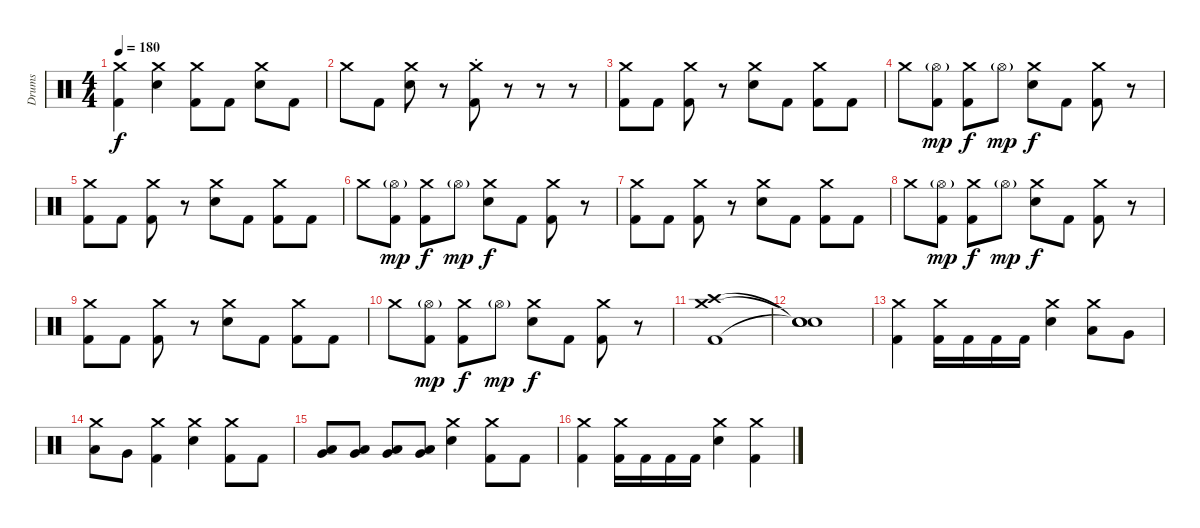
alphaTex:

\track ("Drums" "Drums") {instrument percussion}
\staff {score}
\articulation defaults
\ts (4 4)
\tempo 180
\clef neutral
\ks c
("Crash medium (hit)" "Kick (hit) 2").4{dy f} ("Crash medium (hit)" "Electric Snare (hit)").4 ("Crash medium (hit)" "Kick (hit) 2").8 "Kick (hit) 2".8 ("Crash medium (hit)" "Electric Snare (hit)").8 "Kick (hit) 2".8 |
"Crash medium (hit)".8 "Kick (hit) 2".8 ("Crash medium (hit)" "Electric Snare (hit)").8 r.8 ("Crash medium (hit)"{st} "Kick (hit) 2"{st}).8 r.8 r.8 r.8 |
("Crash medium (hit)" "Kick (hit) 2").8 "Kick (hit) 2".8 ("Crash medium (hit)" "Kick (hit) 2").8 r.8 ("Crash medium (hit)" "Electric Snare (hit)").8 "Kick (hit) 2".8 ("Crash medium (hit)" "Kick (hit) 2").8 "Kick (hit) 2".8 |
"Crash medium (hit)".8 ("Hi-Hat (open)"{g} "Kick (hit) 2").8{dy mp} ("Crash medium (hit)" "Kick (hit) 2").8{dy f} "Hi-Hat (open)"{g}.8{dy mp} ("Crash medium (hit)" "Electric Snare (hit)").8{dy f} "Kick (hit) 2".8 ("Crash medium (hit)" "Kick (hit) 2").8 r.8 |
("Crash medium (hit)" "Kick (hit) 2").8 "Kick (hit) 2".8 ("Crash medium (hit)" "Kick (hit) 2").8 r.8 ("Crash medium (hit)" "Electric Snare (hit)").8 "Kick (hit) 2".8 ("Crash medium (hit)" "Kick (hit) 2").8 "Kick (hit) 2".8 |
"Crash medium (hit)".8 ("Hi-Hat (open)"{g} "Kick (hit) 2").8{dy mp} ("Crash medium (hit)" "Kick (hit) 2").8{dy f} "Hi-Hat (open)"{g}.8{dy mp} ("Crash medium (hit)" "Electric Snare (hit)").8{dy f} "Kick (hit) 2".8 ("Crash medium (hit)" "Kick (hit) 2").8 r.8 |
("Crash medium (hit)" "Kick (hit) 2").8 "Kick (hit) 2".8 ("Crash medium (hit)" "Kick (hit) 2").8 r.8 ("Crash medium (hit)" "Electric Snare (hit)").8 "Kick (hit) 2".8 ("Crash medium (hit)" "Kick (hit) 2").8 "Kick (hit) 2".8 |
"Crash medium (hit)".8 ("Hi-Hat (open)"{g} "Kick (hit) 2").8{dy mp} ("Crash medium (hit)" "Kick (hit) 2").8{dy f} "Hi-Hat (open)"{g}.8{dy mp} ("Crash medium (hit)" "Electric Snare (hit)").8{dy f} "Kick (hit) 2".8 ("Crash medium (hit)" "Kick (hit) 2").8 r.8 |
("Crash medium (hit)" "Kick (hit) 2").8 "Kick (hit) 2".8 ("Crash medium (hit)" "Kick (hit) 2").8 r.8 ("Crash medium (hit)" "Electric Snare (hit)").8 "Kick (hit) 2".8 ("Crash medium (hit)" "Kick (hit) 2").8 "Kick (hit) 2".8 |
"Crash medium (hit)".8 ("Hi-Hat (open)"{g} "Kick (hit) 2").8{dy mp} ("Crash medium (hit)" "Kick (hit) 2").8{dy f} "Hi-Hat (open)"{g}.8{dy mp} ("Crash medium (hit)" "Electric Snare (hit)").8{dy f} "Kick (hit) 2".8 ("Crash medium (hit)" "Kick (hit) 2").8 r.8 |
("Crash medium (hit)" "Crash high (hit)" "Kick (hit) 2").1 |
("Snare (hit)"{t} "Snare (hit)"{t} "Snare (hit)"{t}).1 |
("Crash medium (hit)" "Kick (hit) 2").4 ("Crash medium (hit)" "Kick (hit) 2").16 "Kick (hit) 2".16 "Kick (hit) 2".16 "Kick (hit) 2".16 ("Crash medium (hit)" "Electric Snare (hit)").4 ("Crash medium (hit)" "Low Tom (hit)").8 "Very Low Tom (hit)".8 |
("Crash medium (hit)" "Low Tom (hit)").8 "Very Low Tom (hit)".8 ("Crash medium (hit)" "Kick (hit) 2").4 ("Crash medium (hit)" "Electric Snare (hit)").4 ("Crash medium (hit)" "Kick (hit) 2").8 "Kick (hit) 2".8 |
("Low Tom (hit)" "Very Low Tom (hit)").8{bd 60} ("Low Tom (hit)" "Very Low Tom (hit)").8{bd 60} ("Low Tom (hit)" "Very Low Tom (hit)").8{bd 60} ("Low Tom (hit)" "Very Low Tom (hit)").8{bd 60} ("Crash medium (hit)" "Electric Snare (hit)").4 ("Crash medium (hit)" "Kick (hit) 2").8 "Kick (hit) 2".8 |
("Crash medium (hit)" "Kick (hit) 2").4 ("Crash medium (hit)" "Kick (hit) 2").16 "Kick (hit) 2".16 "Kick (hit) 2".16 "Kick (hit) 2".16 ("Crash medium (hit)" "Electric Snare (hit)").4 ("Crash medium (hit)" "Kick (hit) 2").4
